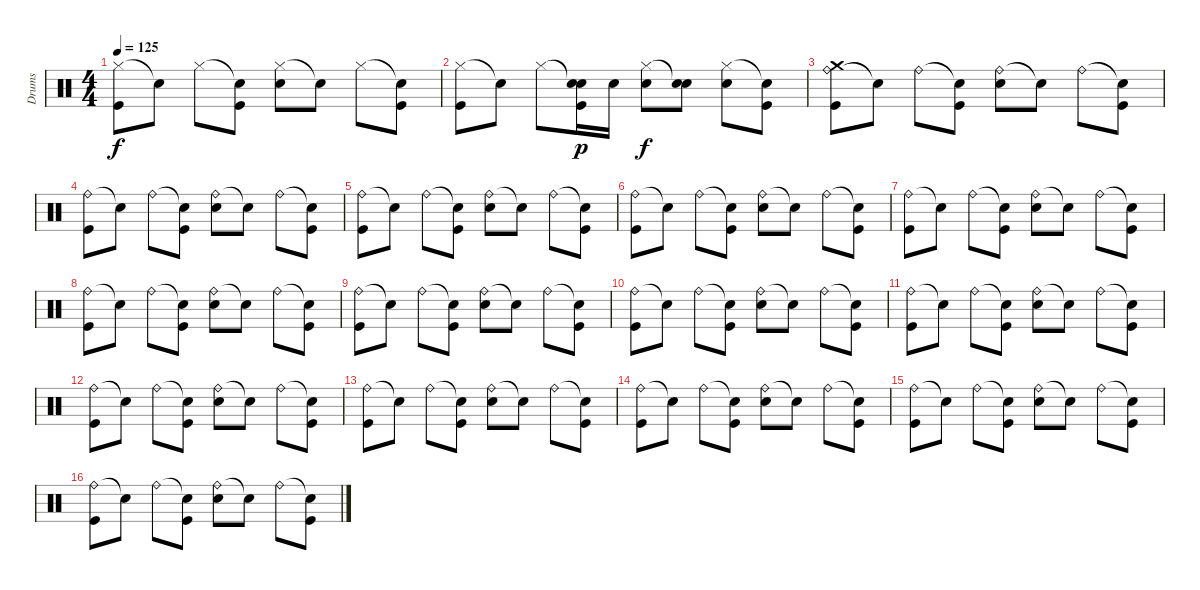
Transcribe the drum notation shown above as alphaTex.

\track ("Drums" "Drums") {instrument percussion}
\staff {score}
\articulation defaults
\ts (4 4)
\tempo 125
\clef neutral
\ks c
("Hi-Hat (closed)" "Kick (hit)").8{dy f} "Snare (hit)"{t}.8 "Hi-Hat (closed)".8 ("Snare (hit)"{t} "Kick (hit)").8 ("Hi-Hat (closed)" "Snare (hit) 2").8 "Snare (hit)"{t}.8 "Hi-Hat (closed)".8 ("Snare (hit)"{t} "Kick (hit)").8 |
("Hi-Hat (closed)" "Kick (hit)").8 "Snare (hit)"{t}.8 "Hi-Hat (closed)".8 ("Snare (hit)"{t} "Kick (hit)" "Snare (hit) 2").16{dy p} "Snare (hit) 2".16 ("Hi-Hat (closed)" "Snare (hit) 2").8{dy f} ("Snare (hit)"{t} "Snare (hit) 2").8 ("Hi-Hat (closed)" "Snare (hit) 2").8 ("Snare (hit)"{t} "Kick (hit)").8 |
("Ride (bell)" "Crash medium (hit)" "Kick (hit)").8 "Snare (hit)"{t}.8 "Ride (bell)".8 ("Snare (hit)"{t} "Kick (hit)").8 ("Ride (bell)" "Snare (hit) 2").8 "Snare (hit)"{t}.8 "Ride (bell)".8 ("Snare (hit)"{t} "Kick (hit)").8 |
("Ride (bell)" "Kick (hit)").8 "Snare (hit)"{t}.8 "Ride (bell)".8 ("Snare (hit)"{t} "Kick (hit)").8 ("Ride (bell)" "Snare (hit) 2").8 "Snare (hit)"{t}.8 "Ride (bell)".8 ("Snare (hit)"{t} "Kick (hit)").8 |
("Ride (bell)" "Kick (hit)").8 "Snare (hit)"{t}.8 "Ride (bell)".8 ("Snare (hit)"{t} "Kick (hit)").8 ("Ride (bell)" "Snare (hit) 2").8 "Snare (hit)"{t}.8 "Ride (bell)".8 ("Snare (hit)"{t} "Kick (hit)").8 |
("Ride (bell)" "Kick (hit)").8 "Snare (hit)"{t}.8 "Ride (bell)".8 ("Snare (hit)"{t} "Kick (hit)").8 ("Ride (bell)" "Snare (hit) 2").8 "Snare (hit)"{t}.8 "Ride (bell)".8 ("Snare (hit)"{t} "Kick (hit)").8 |
("Ride (bell)" "Kick (hit)").8 "Snare (hit)"{t}.8 "Ride (bell)".8 ("Snare (hit)"{t} "Kick (hit)").8 ("Ride (bell)" "Snare (hit) 2").8 "Snare (hit)"{t}.8 "Ride (bell)".8 ("Snare (hit)"{t} "Kick (hit)").8 |
("Ride (bell)" "Kick (hit)").8 "Snare (hit)"{t}.8 "Ride (bell)".8 ("Snare (hit)"{t} "Kick (hit)").8 ("Ride (bell)" "Snare (hit) 2").8 "Snare (hit)"{t}.8 "Ride (bell)".8 ("Snare (hit)"{t} "Kick (hit)").8 |
("Ride (bell)" "Kick (hit)").8 "Snare (hit)"{t}.8 "Ride (bell)".8 ("Snare (hit)"{t} "Kick (hit)").8 ("Ride (bell)" "Snare (hit) 2").8 "Snare (hit)"{t}.8 "Ride (bell)".8 ("Snare (hit)"{t} "Kick (hit)").8 |
("Ride (bell)" "Kick (hit)").8 "Snare (hit)"{t}.8 "Ride (bell)".8 ("Snare (hit)"{t} "Kick (hit)").8 ("Ride (bell)" "Snare (hit) 2").8 "Snare (hit)"{t}.8 "Ride (bell)".8 ("Snare (hit)"{t} "Kick (hit)").8 |
("Ride (bell)" "Kick (hit)").8 "Snare (hit)"{t}.8 "Ride (bell)".8 ("Snare (hit)"{t} "Kick (hit)").8 ("Ride (bell)" "Snare (hit) 2").8 "Snare (hit)"{t}.8 "Ride (bell)".8 ("Snare (hit)"{t} "Kick (hit)").8 |
("Ride (bell)" "Kick (hit)").8 "Snare (hit)"{t}.8 "Ride (bell)".8 ("Snare (hit)"{t} "Kick (hit)").8 ("Ride (bell)" "Snare (hit) 2").8 "Snare (hit)"{t}.8 "Ride (bell)".8 ("Snare (hit)"{t} "Kick (hit)").8 |
("Ride (bell)" "Kick (hit)").8 "Snare (hit)"{t}.8 "Ride (bell)".8 ("Snare (hit)"{t} "Kick (hit)").8 ("Ride (bell)" "Snare (hit) 2").8 "Snare (hit)"{t}.8 "Ride (bell)".8 ("Snare (hit)"{t} "Kick (hit)").8 |
("Ride (bell)" "Kick (hit)").8 "Snare (hit)"{t}.8 "Ride (bell)".8 ("Snare (hit)"{t} "Kick (hit)").8 ("Ride (bell)" "Snare (hit) 2").8 "Snare (hit)"{t}.8 "Ride (bell)".8 ("Snare (hit)"{t} "Kick (hit)").8 |
("Ride (bell)" "Kick (hit)").8 "Snare (hit)"{t}.8 "Ride (bell)".8 ("Snare (hit)"{t} "Kick (hit)").8 ("Ride (bell)" "Snare (hit) 2").8 "Snare (hit)"{t}.8 "Ride (bell)".8 ("Snare (hit)"{t} "Kick (hit)").8 |
("Ride (bell)" "Kick (hit)").8 "Snare (hit)"{t}.8 "Ride (bell)".8 ("Snare (hit)"{t} "Kick (hit)").8 ("Ride (bell)" "Snare (hit) 2").8 "Snare (hit)"{t}.8 "Ride (bell)".8 ("Snare (hit)"{t} "Kick (hit)").8
